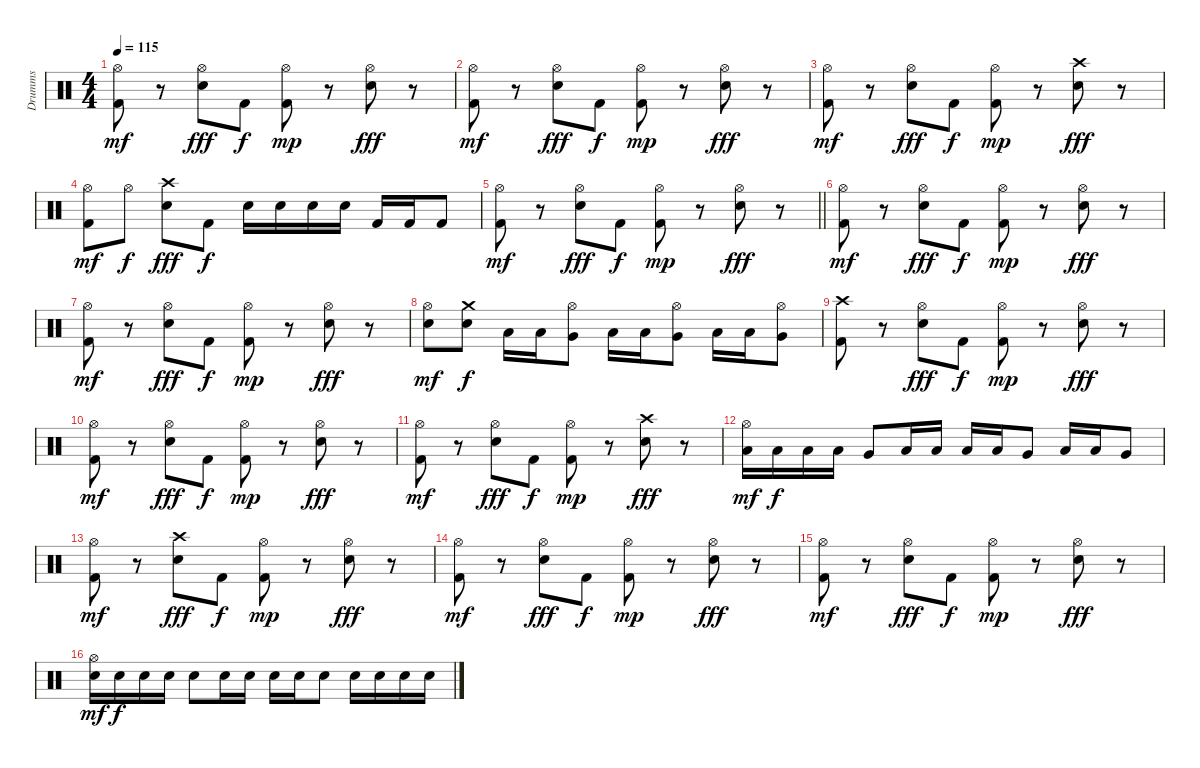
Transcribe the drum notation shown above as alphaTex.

\track ("Drumms" "Drumms") {instrument percussion}
\staff {score}
\articulation defaults
\ts (4 4)
\tempo 115
\clef neutral
\ks c
("Hi-Hat (open)" "Kick (hit) 2").8{dy mf} r.8 ("Hi-Hat (open)" "Snare (hit) 2").8{dy fff} "Kick (hit) 2".8{dy f} ("Hi-Hat (open)" "Kick (hit) 2").8{dy mp} r.8 ("Hi-Hat (open)" "Snare (hit) 2").8{dy fff} r.8 |
("Hi-Hat (open)" "Kick (hit) 2").8{dy mf} r.8 ("Hi-Hat (open)" "Snare (hit) 2").8{dy fff} "Kick (hit) 2".8{dy f} ("Hi-Hat (open)" "Kick (hit) 2").8{dy mp} r.8 ("Hi-Hat (open)" "Snare (hit) 2").8{dy fff} r.8 |
("Hi-Hat (open)" "Kick (hit) 2").8{dy mf} r.8 ("Hi-Hat (open)" "Snare (hit) 2").8{dy fff} "Kick (hit) 2".8{dy f} ("Hi-Hat (open)" "Kick (hit) 2").8{dy mp} r.8 ("Crash high (hit)" "Snare (hit) 2").8{dy fff} r.8 |
("Hi-Hat (open)" "Kick (hit) 2").8{dy mf} "Hi-Hat (open)".8{dy f} ("Crash high (hit)" "Snare (hit) 2").8{dy fff} "Kick (hit) 2".8{dy f} "Electric Snare (hit)".16 "Electric Snare (hit)".16 "Electric Snare (hit)".16 "Electric Snare (hit)".16 "Kick (hit) 2".16 "Kick (hit) 2".16 "Kick (hit) 2".8 |
\barLineRight lightlight
("Hi-Hat (open)" "Kick (hit) 2").8{dy mf} r.8 ("Hi-Hat (open)" "Snare (hit) 2").8{dy fff} "Kick (hit) 2".8{dy f} ("Hi-Hat (open)" "Kick (hit) 2").8{dy mp} r.8 ("Hi-Hat (open)" "Snare (hit) 2").8{dy fff} r.8 |
\section ("" "")
("Hi-Hat (open)" "Kick (hit) 2").8{dy mf} r.8 ("Hi-Hat (open)" "Snare (hit) 2").8{dy fff} "Kick (hit) 2".8{dy f} ("Hi-Hat (open)" "Kick (hit) 2").8{dy mp} r.8 ("Hi-Hat (open)" "Snare (hit) 2").8{dy fff} r.8 |
("Hi-Hat (open)" "Kick (hit) 2").8{dy mf} r.8 ("Hi-Hat (open)" "Snare (hit) 2").8{dy fff} "Kick (hit) 2".8{dy f} ("Hi-Hat (open)" "Kick (hit) 2").8{dy mp} r.8 ("Hi-Hat (open)" "Snare (hit) 2").8{dy fff} r.8 |
("Hi-Hat (open)" "Electric Snare (hit)").8{dy mf} ("Crash medium (hit)" "Electric Snare (hit)").8{dy f} "Low Tom (hit)".16 "Low Tom (hit)".16 ("Hi-Hat (open)" "Very Low Tom (hit)").8 "Low Tom (hit)".16 "Low Tom (hit)".16 ("Hi-Hat (open)" "Very Low Tom (hit)").8 "Low Tom (hit)".16 "Low Tom (hit)".16 ("Hi-Hat (open)" "Very Low Tom (hit)").8 |
("Crash high (hit)" "Kick (hit) 2").8 r.8 ("Hi-Hat (open)" "Snare (hit) 2").8{dy fff} "Kick (hit) 2".8{dy f} ("Hi-Hat (open)" "Kick (hit) 2").8{dy mp} r.8 ("Hi-Hat (open)" "Snare (hit) 2").8{dy fff} r.8 |
("Hi-Hat (open)" "Kick (hit) 2").8{dy mf} r.8 ("Hi-Hat (open)" "Snare (hit) 2").8{dy fff} "Kick (hit) 2".8{dy f} ("Hi-Hat (open)" "Kick (hit) 2").8{dy mp} r.8 ("Hi-Hat (open)" "Snare (hit) 2").8{dy fff} r.8 |
("Hi-Hat (open)" "Kick (hit) 2").8{dy mf} r.8 ("Hi-Hat (open)" "Snare (hit) 2").8{dy fff} "Kick (hit) 2".8{dy f} ("Hi-Hat (open)" "Kick (hit) 2").8{dy mp} r.8 ("Crash high (hit)" "Snare (hit) 2").8{dy fff} r.8 |
("Hi-Hat (open)" "Low Tom (hit)").16{dy mf} "Low Tom (hit)".16{dy f} "Low Tom (hit)".16 "Low Tom (hit)".16 "Very Low Tom (hit)".8 "Low Tom (hit)".16 "Low Tom (hit)".16 "Low Tom (hit)".16 "Low Tom (hit)".16 "Very Low Tom (hit)".8 "Low Tom (hit)".16 "Low Tom (hit)".16 "Very Low Tom (hit)".8 |
("Hi-Hat (open)" "Kick (hit) 2").8{dy mf} r.8 ("Crash high (hit)" "Snare (hit) 2").8{dy fff} "Kick (hit) 2".8{dy f} ("Hi-Hat (open)" "Kick (hit) 2").8{dy mp} r.8 ("Hi-Hat (open)" "Snare (hit) 2").8{dy fff} r.8 |
("Hi-Hat (open)" "Kick (hit) 2").8{dy mf} r.8 ("Hi-Hat (open)" "Snare (hit) 2").8{dy fff} "Kick (hit) 2".8{dy f} ("Hi-Hat (open)" "Kick (hit) 2").8{dy mp} r.8 ("Hi-Hat (open)" "Snare (hit) 2").8{dy fff} r.8 |
("Hi-Hat (open)" "Kick (hit) 2").8{dy mf} r.8 ("Hi-Hat (open)" "Snare (hit) 2").8{dy fff} "Kick (hit) 2".8{dy f} ("Hi-Hat (open)" "Kick (hit) 2").8{dy mp} r.8 ("Hi-Hat (open)" "Snare (hit) 2").8{dy fff} r.8 |
("Hi-Hat (open)" "Snare (hit) 2").16{dy mf} "Snare (hit) 2".16{dy f} "Snare (hit) 2".16 "Snare (hit) 2".16 "Snare (hit) 2".8 "Snare (hit) 2".16 "Snare (hit) 2".16 "Snare (hit) 2".16 "Snare (hit) 2".16 "Snare (hit) 2".8 "Snare (hit) 2".16 "Snare (hit) 2".16 "Snare (hit) 2".16 "Snare (hit) 2".16
